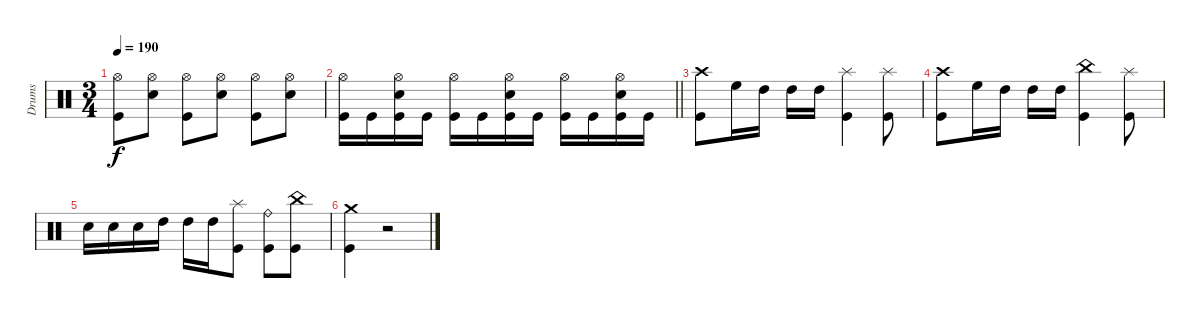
\track ("Drums" "Drums") {instrument percussion}
\staff {score}
\articulation defaults
\ts (3 4)
\tempo 190
\clef neutral
\ks c
("Hi-Hat (open)" "Kick (hit)").8{dy f} ("Hi-Hat (open)" "Electric Snare (hit)").8 ("Hi-Hat (open)" "Kick (hit)").8 ("Hi-Hat (open)" "Electric Snare (hit)").8 ("Hi-Hat (open)" "Kick (hit)").8 ("Hi-Hat (open)" "Electric Snare (hit)").8 |
\barLineRight lightlight
("Hi-Hat (open)" "Kick (hit)").16 "Kick (hit)".16 ("Hi-Hat (open)" "Electric Snare (hit)" "Kick (hit)").16 "Kick (hit)".16 ("Hi-Hat (open)" "Kick (hit)").16 "Kick (hit)".16 ("Hi-Hat (open)" "Electric Snare (hit)" "Kick (hit)").16 "Kick (hit)".16 ("Hi-Hat (open)" "Kick (hit)").16 "Kick (hit)".16 ("Hi-Hat (open)" "Electric Snare (hit)" "Kick (hit)").16 "Kick (hit)".16 |
("Crash high (hit)" "Kick (hit)").8 "High Floor Tom (hit)".16 "High Tom (hit)".16 "High Tom (hit)".16 "High Tom (hit)".16 ("Splash (hit)" "Kick (hit)").4 ("Splash (hit)" "Kick (hit)").8 |
("Crash high (hit)" "Kick (hit)").8 "High Floor Tom (hit)".16 "High Tom (hit)".16 "High Tom (hit)".16 "High Tom (hit)".16 ("China (hit)" "Kick (hit)").4 ("Splash (hit)" "Kick (hit)").8 |
"Electric Snare (hit)".16 "Electric Snare (hit)".16 "Electric Snare (hit)".16 "High Tom (hit)".16 "High Tom (hit)".16 "High Tom (hit)".16 ("Splash (hit)" "Kick (hit)").8 ("Ride (bell)" "Kick (hit)").8 ("China (hit)" "Kick (hit)").8 |
("Crash medium (hit)" "Kick (hit)").4 r.2
